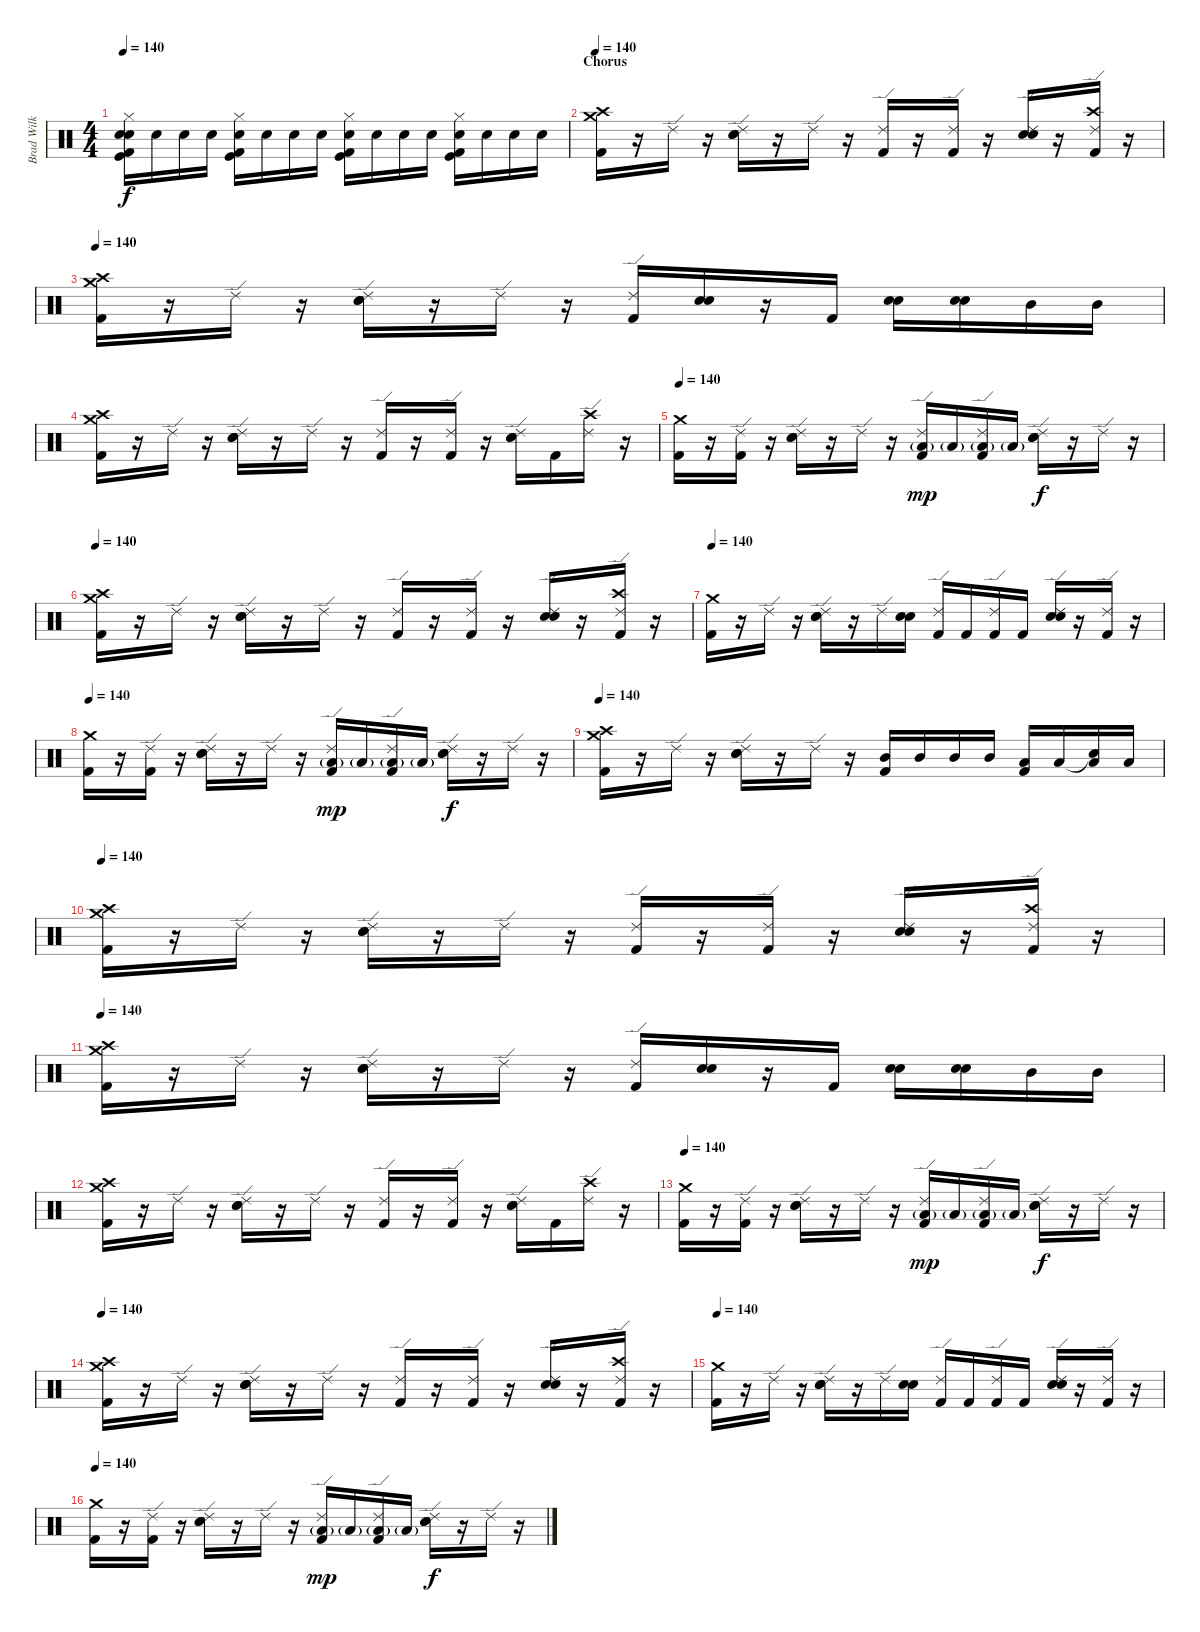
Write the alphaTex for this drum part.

\track ("Brad Wilk" "Brad Wilk") {instrument percussion}
\staff {score}
\articulation defaults
\ts (4 4)
\tempo 140
\clef neutral
\ks c
("Hi-Hat (closed)" "Snare (hit) 2" "Electric Snare (hit)" "Kick (hit)" "Kick (hit) 2").16{dy f} "Snare (hit) 2".16 "Snare (hit) 2".16 "Snare (hit) 2".16 ("Hi-Hat (closed)" "Snare (hit) 2" "Kick (hit) 2" "Kick (hit)").16 "Snare (hit) 2".16 "Snare (hit) 2".16 "Snare (hit) 2".16 ("Hi-Hat (closed)" "Snare (hit) 2" "Kick (hit)" "Kick (hit) 2").16 "Snare (hit) 2".16 "Snare (hit) 2".16 "Snare (hit) 2".16 ("Hi-Hat (closed)" "Snare (hit) 2" "Kick (hit)" "Kick (hit) 2").16 "Snare (hit) 2".16 "Snare (hit) 2".16 "Snare (hit) 2".16 |
\section ("" "Chorus")
\tempo 140
("Crash medium (hit)" "Crash high (hit)" "Kick (hit) 2").16 r.16 "Ride (edge) 2".16 r.16 ("Ride (edge) 2" "Electric Snare (hit)" "Snare (hit) 2").16 r.16 "Ride (edge) 2".16 r.16 ("Ride (edge) 2" "Kick (hit) 2").16 r.16 ("Ride (edge) 2" "Kick (hit) 2").16 r.16 ("Ride (edge) 2" "Electric Snare (hit)" "Snare (hit) 2").16 r.16 ("Ride (edge) 2" "Crash high (hit)" "Kick (hit) 2").16 r.16 |
\tempo 140
("Crash medium (hit)" "Crash high (hit)" "Kick (hit) 2").16 r.16 "Ride (edge) 2".16 r.16 ("Ride (edge) 2" "Electric Snare (hit)" "Snare (hit) 2").16 r.16 "Ride (edge) 2".16 r.16 ("Ride (edge) 2" "Kick (hit) 2").16 ("Electric Snare (hit)" "Snare (hit) 2").16 r.16 "Kick (hit) 2".16 ("Electric Snare (hit)" "Snare (hit) 2").16 ("Electric Snare (hit)" "Electric Snare (hit)").16 "Mid Tom (hit)".16 "Mid Tom (hit)".16 |
("Crash medium (hit)" "Crash high (hit)" "Kick (hit) 2").16 r.16 "Ride (edge) 2".16 r.16 ("Ride (edge) 2" "Electric Snare (hit)" "Snare (hit) 2").16 r.16 "Ride (edge) 2".16 r.16 ("Ride (edge) 2" "Kick (hit) 2").16 r.16 ("Ride (edge) 2" "Kick (hit) 2").16 r.16 ("Ride (edge) 2" "Electric Snare (hit)" "Snare (hit) 2").16 "Kick (hit) 2".16 ("Ride (edge) 2" "Crash high (hit)").16 r.16 |
\tempo 140
("Crash medium (hit)" "Kick (hit) 2").16 r.16 ("Ride (edge) 2" "Kick (hit) 2").16 r.16 ("Ride (edge) 2" "Electric Snare (hit)" "Snare (hit) 2").16 r.16 "Ride (edge) 2".16 r.16 ("Ride (edge) 2" "Low Tom (hit)"{g} "Kick (hit) 2").16{dy mp} "Low Tom (hit)"{g}.16 ("Ride (edge) 2" "Low Tom (hit)"{g} "Kick (hit) 2").16 "Low Tom (hit)"{g}.16 ("Ride (edge) 2" "Electric Snare (hit)" "Snare (hit) 2").16{dy f} r.16 "Ride (edge) 2".16 r.16 |
\tempo 140
("Crash medium (hit)" "Crash high (hit)" "Kick (hit) 2").16 r.16 "Ride (edge) 2".16 r.16 ("Ride (edge) 2" "Electric Snare (hit)" "Snare (hit) 2").16 r.16 "Ride (edge) 2".16 r.16 ("Ride (edge) 2" "Kick (hit) 2").16 r.16 ("Ride (edge) 2" "Kick (hit) 2").16 r.16 ("Ride (edge) 2" "Electric Snare (hit)" "Snare (hit) 2").16 r.16 ("Ride (edge) 2" "Crash high (hit)" "Kick (hit) 2").16 r.16 |
\tempo 130
\tempo 140
("Crash medium (hit)" "Kick (hit) 2").16 r.16 "Ride (edge) 2".16 r.16 ("Ride (edge) 2" "Electric Snare (hit)" "Snare (hit) 2").16 r.16 "Ride (edge) 2".16 ("Electric Snare (hit)" "Snare (hit) 2").16 ("Ride (edge) 2" "Kick (hit) 2").16 "Kick (hit) 2".16 ("Ride (edge) 2" "Kick (hit) 2").16 "Kick (hit) 2".16 ("Ride (edge) 2" "Electric Snare (hit)" "Snare (hit) 2").16 r.16 ("Ride (edge) 2" "Kick (hit) 2").16 r.16 |
\tempo 140
("Crash medium (hit)" "Kick (hit) 2").16 r.16 ("Ride (edge) 2" "Kick (hit) 2").16 r.16 ("Ride (edge) 2" "Electric Snare (hit)" "Snare (hit) 2").16 r.16 "Ride (edge) 2".16 r.16 ("Ride (edge) 2" "Low Tom (hit)"{g} "Kick (hit) 2").16{dy mp} "Low Tom (hit)"{g}.16 ("Ride (edge) 2" "Low Tom (hit)"{g} "Kick (hit) 2").16 "Low Tom (hit)"{g}.16 ("Ride (edge) 2" "Electric Snare (hit)" "Snare (hit) 2").16{dy f} r.16 "Ride (edge) 2".16 r.16 |
\tempo 140
("Crash medium (hit)" "Crash high (hit)" "Kick (hit) 2").16 r.16 "Ride (edge) 2".16 r.16 ("Ride (edge) 2" "Electric Snare (hit)" "Snare (hit) 2").16 r.16 "Ride (edge) 2".16 r.16 ("Mid Tom (hit)" "Kick (hit) 2").16 "Mid Tom (hit)".16 "Mid Tom (hit)".16 "Mid Tom (hit)".16 ("Low Tom (hit)" "Kick (hit) 2").16 "Low Tom (hit)".16 ("Snare (hit)"{t} "Low Tom (hit)").16 "Low Tom (hit)".16 |
\tempo 140
("Crash medium (hit)" "Crash high (hit)" "Kick (hit) 2").16 r.16 "Ride (edge) 2".16 r.16 ("Ride (edge) 2" "Electric Snare (hit)" "Snare (hit) 2").16 r.16 "Ride (edge) 2".16 r.16 ("Ride (edge) 2" "Kick (hit) 2").16 r.16 ("Ride (edge) 2" "Kick (hit) 2").16 r.16 ("Ride (edge) 2" "Electric Snare (hit)" "Snare (hit) 2").16 r.16 ("Ride (edge) 2" "Crash high (hit)" "Kick (hit) 2").16 r.16 |
\tempo 140
("Crash medium (hit)" "Crash high (hit)" "Kick (hit) 2").16 r.16 "Ride (edge) 2".16 r.16 ("Ride (edge) 2" "Electric Snare (hit)" "Snare (hit) 2").16 r.16 "Ride (edge) 2".16 r.16 ("Ride (edge) 2" "Kick (hit) 2").16 ("Electric Snare (hit)" "Snare (hit) 2").16 r.16 "Kick (hit) 2".16 ("Electric Snare (hit)" "Snare (hit) 2").16 ("Electric Snare (hit)" "Electric Snare (hit)").16 "Mid Tom (hit)".16 "Mid Tom (hit)".16 |
("Crash medium (hit)" "Crash high (hit)" "Kick (hit) 2").16 r.16 "Ride (edge) 2".16 r.16 ("Ride (edge) 2" "Electric Snare (hit)" "Snare (hit) 2").16 r.16 "Ride (edge) 2".16 r.16 ("Ride (edge) 2" "Kick (hit) 2").16 r.16 ("Ride (edge) 2" "Kick (hit) 2").16 r.16 ("Ride (edge) 2" "Electric Snare (hit)" "Snare (hit) 2").16 "Kick (hit) 2".16 ("Ride (edge) 2" "Crash high (hit)").16 r.16 |
\tempo 140
("Crash medium (hit)" "Kick (hit) 2").16 r.16 ("Ride (edge) 2" "Kick (hit) 2").16 r.16 ("Ride (edge) 2" "Electric Snare (hit)" "Snare (hit) 2").16 r.16 "Ride (edge) 2".16 r.16 ("Ride (edge) 2" "Low Tom (hit)"{g} "Kick (hit) 2").16{dy mp} "Low Tom (hit)"{g}.16 ("Ride (edge) 2" "Low Tom (hit)"{g} "Kick (hit) 2").16 "Low Tom (hit)"{g}.16 ("Ride (edge) 2" "Electric Snare (hit)" "Snare (hit) 2").16{dy f} r.16 "Ride (edge) 2".16 r.16 |
\tempo 140
("Crash medium (hit)" "Crash high (hit)" "Kick (hit) 2").16 r.16 "Ride (edge) 2".16 r.16 ("Ride (edge) 2" "Electric Snare (hit)" "Snare (hit) 2").16 r.16 "Ride (edge) 2".16 r.16 ("Ride (edge) 2" "Kick (hit) 2").16 r.16 ("Ride (edge) 2" "Kick (hit) 2").16 r.16 ("Ride (edge) 2" "Electric Snare (hit)" "Snare (hit) 2").16 r.16 ("Ride (edge) 2" "Crash high (hit)" "Kick (hit) 2").16 r.16 |
\tempo 130
\tempo 140
("Crash medium (hit)" "Kick (hit) 2").16 r.16 "Ride (edge) 2".16 r.16 ("Ride (edge) 2" "Electric Snare (hit)" "Snare (hit) 2").16 r.16 "Ride (edge) 2".16 ("Electric Snare (hit)" "Snare (hit) 2").16 ("Ride (edge) 2" "Kick (hit) 2").16 "Kick (hit) 2".16 ("Ride (edge) 2" "Kick (hit) 2").16 "Kick (hit) 2".16 ("Ride (edge) 2" "Electric Snare (hit)" "Snare (hit) 2").16 r.16 ("Ride (edge) 2" "Kick (hit) 2").16 r.16 |
\tempo 140
("Crash medium (hit)" "Kick (hit) 2").16 r.16 ("Ride (edge) 2" "Kick (hit) 2").16 r.16 ("Ride (edge) 2" "Electric Snare (hit)" "Snare (hit) 2").16 r.16 "Ride (edge) 2".16 r.16 ("Ride (edge) 2" "Low Tom (hit)"{g} "Kick (hit) 2").16{dy mp} "Low Tom (hit)"{g}.16 ("Ride (edge) 2" "Low Tom (hit)"{g} "Kick (hit) 2").16 "Low Tom (hit)"{g}.16 ("Ride (edge) 2" "Electric Snare (hit)" "Snare (hit) 2").16{dy f} r.16 "Ride (edge) 2".16 r.16
